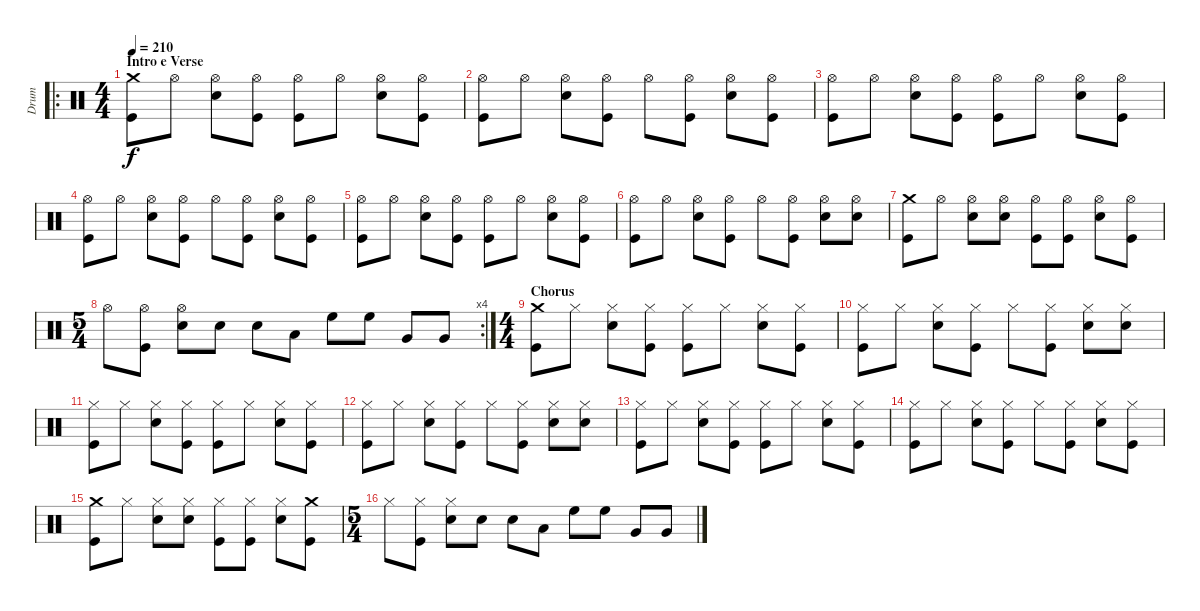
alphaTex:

\track ("Drum" "Drum") {instrument percussion}
\staff {score}
\articulation defaults
\ro
\ts (4 4)
\section ("" "Intro e Verse")
\tempo 210
\clef neutral
\ks c
("Crash medium (hit)" "Kick (hit)").8{dy f} "Hi-Hat (open)".8 ("Hi-Hat (open)" "Snare (hit) 2").8 ("Hi-Hat (open)" "Kick (hit)").8 ("Hi-Hat (open)" "Kick (hit)").8 "Hi-Hat (open)".8 ("Hi-Hat (open)" "Snare (hit) 2").8 ("Hi-Hat (open)" "Kick (hit)").8 |
("Hi-Hat (open)" "Kick (hit)").8 "Hi-Hat (open)".8 ("Hi-Hat (open)" "Snare (hit) 2").8 ("Hi-Hat (open)" "Kick (hit)").8 "Hi-Hat (open)".8 ("Hi-Hat (open)" "Kick (hit)").8 ("Hi-Hat (open)" "Snare (hit) 2").8 ("Hi-Hat (open)" "Kick (hit)").8 |
("Hi-Hat (open)" "Kick (hit)").8 "Hi-Hat (open)".8 ("Hi-Hat (open)" "Snare (hit) 2").8 ("Hi-Hat (open)" "Kick (hit)").8 ("Hi-Hat (open)" "Kick (hit)").8 "Hi-Hat (open)".8 ("Hi-Hat (open)" "Snare (hit) 2").8 ("Hi-Hat (open)" "Kick (hit)").8 |
("Hi-Hat (open)" "Kick (hit)").8 "Hi-Hat (open)".8 ("Hi-Hat (open)" "Snare (hit) 2").8 ("Hi-Hat (open)" "Kick (hit)").8 "Hi-Hat (open)".8 ("Hi-Hat (open)" "Kick (hit)").8 ("Hi-Hat (open)" "Snare (hit) 2").8 ("Hi-Hat (open)" "Kick (hit)").8 |
("Hi-Hat (open)" "Kick (hit)").8 "Hi-Hat (open)".8 ("Hi-Hat (open)" "Snare (hit) 2").8 ("Hi-Hat (open)" "Kick (hit)").8 ("Hi-Hat (open)" "Kick (hit)").8 "Hi-Hat (open)".8 ("Hi-Hat (open)" "Snare (hit) 2").8 ("Hi-Hat (open)" "Kick (hit)").8 |
("Hi-Hat (open)" "Kick (hit)").8 "Hi-Hat (open)".8 ("Hi-Hat (open)" "Snare (hit) 2").8 ("Hi-Hat (open)" "Kick (hit)").8 "Hi-Hat (open)".8 ("Hi-Hat (open)" "Kick (hit)").8 ("Hi-Hat (open)" "Snare (hit) 2").8 ("Hi-Hat (open)" "Snare (hit) 2").8 |
("Crash medium (hit)" "Kick (hit)").8 "Hi-Hat (open)".8 ("Hi-Hat (open)" "Snare (hit) 2").8 ("Hi-Hat (open)" "Snare (hit) 2").8 ("Hi-Hat (open)" "Kick (hit)").8 ("Hi-Hat (open)" "Kick (hit)").8 ("Hi-Hat (open)" "Snare (hit) 2").8 ("Hi-Hat (open)" "Kick (hit)").8 |
\rc 4
\ts (5 4)
"Hi-Hat (open)".8 ("Hi-Hat (open)" "Kick (hit)").8 ("Hi-Hat (open)" "Snare (hit) 2").8 "Snare (hit) 2".8 "Snare (hit) 2".8 "Low Tom (hit)".8 "High Floor Tom (hit)".8 "High Floor Tom (hit)".8 "Very Low Tom (hit)".8 "Very Low Tom (hit)".8 |
\ts (4 4)
\section ("" "Chorus")
("Crash medium (hit)" "Kick (hit)").8 "Hi-Hat (closed)".8 ("Hi-Hat (closed)" "Snare (hit) 2").8 ("Hi-Hat (closed)" "Kick (hit)").8 ("Hi-Hat (closed)" "Kick (hit)").8 "Hi-Hat (closed)".8 ("Hi-Hat (closed)" "Snare (hit) 2").8 ("Hi-Hat (closed)" "Kick (hit)").8 |
("Hi-Hat (closed)" "Kick (hit)").8 "Hi-Hat (closed)".8 ("Hi-Hat (closed)" "Snare (hit) 2").8 ("Hi-Hat (closed)" "Kick (hit)").8 "Hi-Hat (closed)".8 ("Hi-Hat (closed)" "Kick (hit)").8 ("Hi-Hat (closed)" "Snare (hit) 2").8 ("Hi-Hat (closed)" "Snare (hit) 2").8 |
("Hi-Hat (closed)" "Kick (hit)").8 "Hi-Hat (closed)".8 ("Hi-Hat (closed)" "Snare (hit) 2").8 ("Hi-Hat (closed)" "Kick (hit)").8 ("Hi-Hat (closed)" "Kick (hit)").8 "Hi-Hat (closed)".8 ("Hi-Hat (closed)" "Snare (hit) 2").8 ("Hi-Hat (closed)" "Kick (hit)").8 |
("Hi-Hat (closed)" "Kick (hit)").8 "Hi-Hat (closed)".8 ("Hi-Hat (closed)" "Snare (hit) 2").8 ("Hi-Hat (closed)" "Kick (hit)").8 "Hi-Hat (closed)".8 ("Hi-Hat (closed)" "Kick (hit)").8 ("Hi-Hat (closed)" "Snare (hit) 2").8 ("Hi-Hat (closed)" "Snare (hit) 2").8 |
("Hi-Hat (closed)" "Kick (hit)").8 "Hi-Hat (closed)".8 ("Hi-Hat (closed)" "Snare (hit) 2").8 ("Hi-Hat (closed)" "Kick (hit)").8 ("Hi-Hat (closed)" "Kick (hit)").8 "Hi-Hat (closed)".8 ("Hi-Hat (closed)" "Snare (hit) 2").8 ("Hi-Hat (closed)" "Kick (hit)").8 |
("Hi-Hat (closed)" "Kick (hit)").8 "Hi-Hat (closed)".8 ("Hi-Hat (closed)" "Snare (hit) 2").8 ("Hi-Hat (closed)" "Kick (hit)").8 "Hi-Hat (closed)".8 ("Hi-Hat (closed)" "Kick (hit)").8 ("Hi-Hat (closed)" "Snare (hit) 2").8 ("Hi-Hat (closed)" "Kick (hit)").8 |
("Crash medium (hit)" "Kick (hit)").8 "Hi-Hat (closed)".8 ("Hi-Hat (closed)" "Snare (hit) 2").8 ("Hi-Hat (closed)" "Snare (hit) 2").8 ("Hi-Hat (closed)" "Kick (hit)").8 ("Hi-Hat (closed)" "Kick (hit)").8 ("Hi-Hat (closed)" "Snare (hit) 2").8 ("Crash medium (hit)" "Kick (hit)").8 |
\ts (5 4)
"Hi-Hat (closed)".8 ("Hi-Hat (closed)" "Kick (hit)").8 ("Hi-Hat (closed)" "Snare (hit) 2").8 "Snare (hit) 2".8 "Snare (hit) 2".8 "Low Tom (hit)".8 "High Floor Tom (hit)".8 "High Floor Tom (hit)".8 "Very Low Tom (hit)".8 "Very Low Tom (hit)".8
